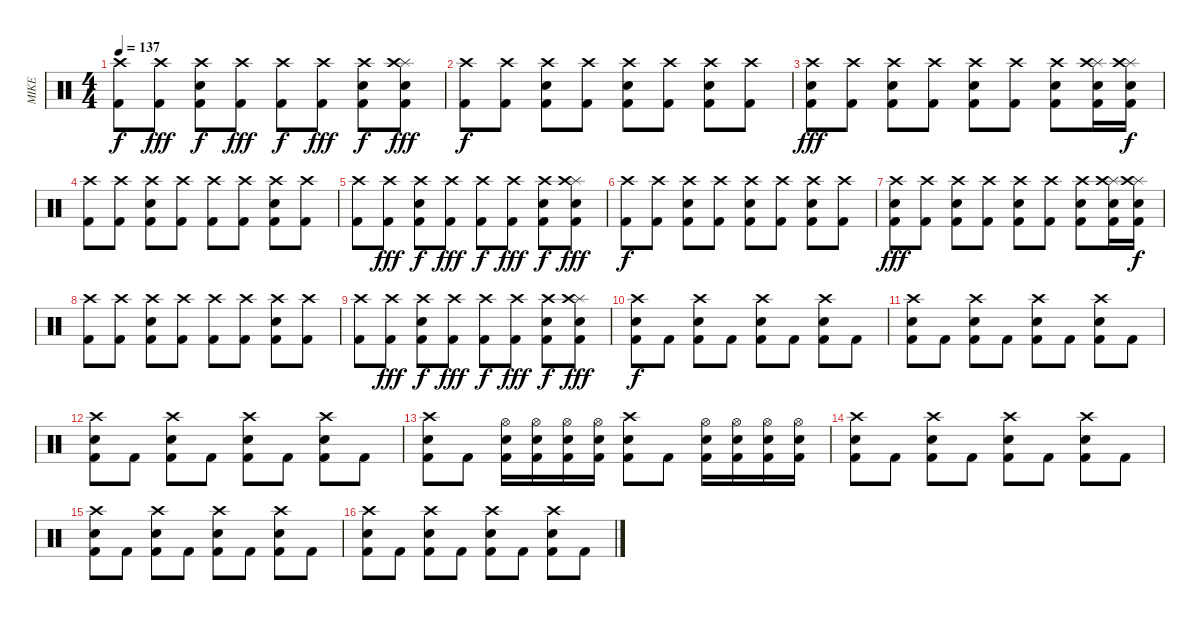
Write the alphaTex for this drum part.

\track ("MIKE" "MIKE") {instrument percussion}
\staff {score}
\articulation defaults
\ts (4 4)
\tempo 137
\clef neutral
\ks c
("Crash high (hit)" "Kick (hit) 2").8{dy f} ("Crash high (hit)" "Kick (hit) 2").8{dy fff} ("Crash high (hit)" "Electric Snare (hit)" "Kick (hit) 2").8{dy f} ("Crash high (hit)" "Kick (hit) 2").8{dy fff} ("Crash high (hit)" "Kick (hit) 2").8{dy f} ("Crash high (hit)" "Kick (hit) 2").8{dy fff} ("Crash high (hit)" "Electric Snare (hit)" "Kick (hit) 2").8{dy f} ("Splash (hit)" "Crash high (hit)" "Electric Snare (hit)" "Kick (hit) 2").8{dy fff} |
("Crash high (hit)" "Kick (hit) 2").8{dy f} ("Crash high (hit)" "Kick (hit) 2").8 ("Crash high (hit)" "Electric Snare (hit)" "Kick (hit) 2").8 ("Crash high (hit)" "Kick (hit) 2").8 ("Crash high (hit)" "Electric Snare (hit)" "Kick (hit) 2").8 ("Crash high (hit)" "Kick (hit) 2").8 ("Crash high (hit)" "Electric Snare (hit)" "Kick (hit) 2").8 ("Crash high (hit)" "Kick (hit) 2").8 |
("Crash high (hit)" "Electric Snare (hit)" "Kick (hit) 2").8{dy fff} ("Crash high (hit)" "Kick (hit) 2").8 ("Crash high (hit)" "Electric Snare (hit)" "Kick (hit) 2").8 ("Crash high (hit)" "Kick (hit) 2").8 ("Crash high (hit)" "Electric Snare (hit)" "Kick (hit) 2").8 ("Crash high (hit)" "Kick (hit) 2").8 ("Crash high (hit)" "Electric Snare (hit)" "Kick (hit) 2").8 ("Splash (hit)" "Crash high (hit)" "Electric Snare (hit)" "Kick (hit) 2").16 ("Splash (hit)" "Crash high (hit)" "Electric Snare (hit)" "Kick (hit) 2").16{dy f} |
("Crash high (hit)" "Kick (hit) 2").8 ("Crash high (hit)" "Kick (hit) 2").8 ("Crash high (hit)" "Electric Snare (hit)" "Kick (hit) 2").8 ("Crash high (hit)" "Kick (hit) 2").8 ("Crash high (hit)" "Kick (hit) 2").8 ("Crash high (hit)" "Kick (hit) 2").8 ("Crash high (hit)" "Electric Snare (hit)" "Kick (hit) 2").8 ("Crash high (hit)" "Kick (hit) 2").8 |
("Crash high (hit)" "Kick (hit) 2").8 ("Crash high (hit)" "Kick (hit) 2").8{dy fff} ("Crash high (hit)" "Electric Snare (hit)" "Kick (hit) 2").8{dy f} ("Crash high (hit)" "Kick (hit) 2").8{dy fff} ("Crash high (hit)" "Kick (hit) 2").8{dy f} ("Crash high (hit)" "Kick (hit) 2").8{dy fff} ("Crash high (hit)" "Electric Snare (hit)" "Kick (hit) 2").8{dy f} ("Splash (hit)" "Crash high (hit)" "Electric Snare (hit)" "Kick (hit) 2").8{dy fff} |
("Crash high (hit)" "Kick (hit) 2").8{dy f} ("Crash high (hit)" "Kick (hit) 2").8 ("Crash high (hit)" "Electric Snare (hit)" "Kick (hit) 2").8 ("Crash high (hit)" "Kick (hit) 2").8 ("Crash high (hit)" "Electric Snare (hit)" "Kick (hit) 2").8 ("Crash high (hit)" "Kick (hit) 2").8 ("Crash high (hit)" "Electric Snare (hit)" "Kick (hit) 2").8 ("Crash high (hit)" "Kick (hit) 2").8 |
("Crash high (hit)" "Electric Snare (hit)" "Kick (hit) 2").8{dy fff} ("Crash high (hit)" "Kick (hit) 2").8 ("Crash high (hit)" "Electric Snare (hit)" "Kick (hit) 2").8 ("Crash high (hit)" "Kick (hit) 2").8 ("Crash high (hit)" "Electric Snare (hit)" "Kick (hit) 2").8 ("Crash high (hit)" "Kick (hit) 2").8 ("Crash high (hit)" "Electric Snare (hit)" "Kick (hit) 2").8 ("Splash (hit)" "Crash high (hit)" "Electric Snare (hit)" "Kick (hit) 2").16 ("Splash (hit)" "Crash high (hit)" "Electric Snare (hit)" "Kick (hit) 2").16{dy f} |
("Crash high (hit)" "Kick (hit) 2").8 ("Crash high (hit)" "Kick (hit) 2").8 ("Crash high (hit)" "Electric Snare (hit)" "Kick (hit) 2").8 ("Crash high (hit)" "Kick (hit) 2").8 ("Crash high (hit)" "Kick (hit) 2").8 ("Crash high (hit)" "Kick (hit) 2").8 ("Crash high (hit)" "Electric Snare (hit)" "Kick (hit) 2").8 ("Crash high (hit)" "Kick (hit) 2").8 |
("Crash high (hit)" "Kick (hit) 2").8 ("Crash high (hit)" "Kick (hit) 2").8{dy fff} ("Crash high (hit)" "Electric Snare (hit)" "Kick (hit) 2").8{dy f} ("Crash high (hit)" "Kick (hit) 2").8{dy fff} ("Crash high (hit)" "Kick (hit) 2").8{dy f} ("Crash high (hit)" "Kick (hit) 2").8{dy fff} ("Crash high (hit)" "Electric Snare (hit)" "Kick (hit) 2").8{dy f} ("Splash (hit)" "Crash high (hit)" "Electric Snare (hit)" "Kick (hit) 2").8{dy fff} |
("Crash high (hit)" "Kick (hit) 2" "Electric Snare (hit)").8{dy f} "Kick (hit) 2".8 ("Crash high (hit)" "Kick (hit) 2" "Electric Snare (hit)").8 "Kick (hit) 2".8 ("Crash high (hit)" "Kick (hit) 2" "Electric Snare (hit)").8 "Kick (hit) 2".8 ("Crash high (hit)" "Kick (hit) 2" "Electric Snare (hit)").8 "Kick (hit) 2".8 |
("Crash high (hit)" "Kick (hit) 2" "Electric Snare (hit)").8 "Kick (hit) 2".8 ("Crash high (hit)" "Kick (hit) 2" "Electric Snare (hit)").8 "Kick (hit) 2".8 ("Crash high (hit)" "Kick (hit) 2" "Electric Snare (hit)").8 "Kick (hit) 2".8 ("Crash high (hit)" "Kick (hit) 2" "Electric Snare (hit)").8 "Kick (hit) 2".8 |
("Crash high (hit)" "Kick (hit) 2" "Electric Snare (hit)").8 "Kick (hit) 2".8 ("Crash high (hit)" "Kick (hit) 2" "Electric Snare (hit)").8 "Kick (hit) 2".8 ("Crash high (hit)" "Kick (hit) 2" "Electric Snare (hit)").8 "Kick (hit) 2".8 ("Crash high (hit)" "Kick (hit) 2" "Electric Snare (hit)").8 "Kick (hit) 2".8 |
("Crash high (hit)" "Kick (hit) 2" "Electric Snare (hit)").8 "Kick (hit) 2".8 ("Hi-Hat (open)" "Kick (hit) 2" "Electric Snare (hit)").16 ("Hi-Hat (open)" "Kick (hit) 2" "Electric Snare (hit)").16 ("Hi-Hat (open)" "Kick (hit) 2" "Electric Snare (hit)").16 ("Hi-Hat (open)" "Kick (hit) 2" "Electric Snare (hit)").16 ("Crash high (hit)" "Kick (hit) 2" "Electric Snare (hit)").8 "Kick (hit) 2".8 ("Hi-Hat (open)" "Kick (hit) 2" "Electric Snare (hit)").16 ("Hi-Hat (open)" "Kick (hit) 2" "Electric Snare (hit)").16 ("Hi-Hat (open)" "Kick (hit) 2" "Electric Snare (hit)").16 ("Hi-Hat (open)" "Kick (hit) 2" "Electric Snare (hit)").16 |
("Crash high (hit)" "Kick (hit) 2" "Electric Snare (hit)").8 "Kick (hit) 2".8 ("Crash high (hit)" "Kick (hit) 2" "Electric Snare (hit)").8 "Kick (hit) 2".8 ("Crash high (hit)" "Kick (hit) 2" "Electric Snare (hit)").8 "Kick (hit) 2".8 ("Crash high (hit)" "Kick (hit) 2" "Electric Snare (hit)").8 "Kick (hit) 2".8 |
("Crash high (hit)" "Kick (hit) 2" "Electric Snare (hit)").8 "Kick (hit) 2".8 ("Crash high (hit)" "Kick (hit) 2" "Electric Snare (hit)").8 "Kick (hit) 2".8 ("Crash high (hit)" "Kick (hit) 2" "Electric Snare (hit)").8 "Kick (hit) 2".8 ("Crash high (hit)" "Kick (hit) 2" "Electric Snare (hit)").8 "Kick (hit) 2".8 |
("Crash high (hit)" "Kick (hit) 2" "Electric Snare (hit)").8 "Kick (hit) 2".8 ("Crash high (hit)" "Kick (hit) 2" "Electric Snare (hit)").8 "Kick (hit) 2".8 ("Crash high (hit)" "Kick (hit) 2" "Electric Snare (hit)").8 "Kick (hit) 2".8 ("Crash high (hit)" "Kick (hit) 2" "Electric Snare (hit)").8 "Kick (hit) 2".8
